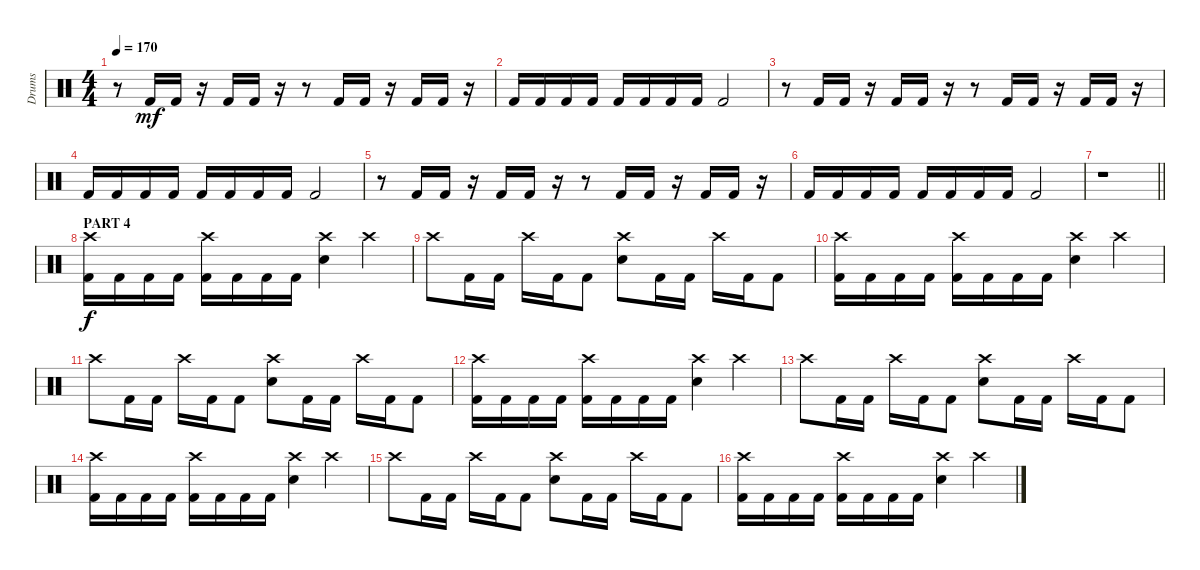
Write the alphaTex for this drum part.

\track ("Drums" "Drums") {instrument percussion}
\staff
\articulation defaults
\ts (4 4)
\tempo 170
\clef neutral
\ks c
r.8{dy mf} "Kick (hit) 2".16 "Kick (hit) 2".16 r.16 "Kick (hit) 2".16 "Kick (hit) 2".16 r.16 r.8 "Kick (hit) 2".16 "Kick (hit) 2".16 r.16 "Kick (hit) 2".16 "Kick (hit) 2".16 r.16 |
"Kick (hit) 2".16 "Kick (hit) 2".16 "Kick (hit) 2".16 "Kick (hit) 2".16 "Kick (hit) 2".16 "Kick (hit) 2".16 "Kick (hit) 2".16 "Kick (hit) 2".16 "Kick (hit) 2".2 |
r.8 "Kick (hit) 2".16 "Kick (hit) 2".16 r.16 "Kick (hit) 2".16 "Kick (hit) 2".16 r.16 r.8 "Kick (hit) 2".16 "Kick (hit) 2".16 r.16 "Kick (hit) 2".16 "Kick (hit) 2".16 r.16 |
"Kick (hit) 2".16 "Kick (hit) 2".16 "Kick (hit) 2".16 "Kick (hit) 2".16 "Kick (hit) 2".16 "Kick (hit) 2".16 "Kick (hit) 2".16 "Kick (hit) 2".16 "Kick (hit) 2".2 |
r.8 "Kick (hit) 2".16 "Kick (hit) 2".16 r.16 "Kick (hit) 2".16 "Kick (hit) 2".16 r.16 r.8 "Kick (hit) 2".16 "Kick (hit) 2".16 r.16 "Kick (hit) 2".16 "Kick (hit) 2".16 r.16 |
"Kick (hit) 2".16 "Kick (hit) 2".16 "Kick (hit) 2".16 "Kick (hit) 2".16 "Kick (hit) 2".16 "Kick (hit) 2".16 "Kick (hit) 2".16 "Kick (hit) 2".16 "Kick (hit) 2".2 |
\barLineRight lightlight
r.1 |
\section ("" "PART 4")
("Crash high (hit)" "Kick (hit) 2").16{dy f} "Kick (hit) 2".16 "Kick (hit) 2".16 "Kick (hit) 2".16 ("Crash high (hit)" "Kick (hit) 2").16 "Kick (hit) 2".16 "Kick (hit) 2".16 "Kick (hit) 2".16 ("Crash high (hit)" "Electric Snare (hit)").4 "Crash high (hit)".4 |
"Crash high (hit)".8 "Kick (hit) 2".16 "Kick (hit) 2".16 "Crash high (hit)".16 "Kick (hit) 2".16 "Kick (hit) 2".8 ("Crash high (hit)" "Electric Snare (hit)").8 "Kick (hit) 2".16 "Kick (hit) 2".16 "Crash high (hit)".16 "Kick (hit) 2".16 "Kick (hit) 2".8 |
("Crash high (hit)" "Kick (hit) 2").16 "Kick (hit) 2".16 "Kick (hit) 2".16 "Kick (hit) 2".16 ("Crash high (hit)" "Kick (hit) 2").16 "Kick (hit) 2".16 "Kick (hit) 2".16 "Kick (hit) 2".16 ("Crash high (hit)" "Electric Snare (hit)").4 "Crash high (hit)".4 |
"Crash high (hit)".8 "Kick (hit) 2".16 "Kick (hit) 2".16 "Crash high (hit)".16 "Kick (hit) 2".16 "Kick (hit) 2".8 ("Crash high (hit)" "Electric Snare (hit)").8 "Kick (hit) 2".16 "Kick (hit) 2".16 "Crash high (hit)".16 "Kick (hit) 2".16 "Kick (hit) 2".8 |
("Crash high (hit)" "Kick (hit) 2").16 "Kick (hit) 2".16 "Kick (hit) 2".16 "Kick (hit) 2".16 ("Crash high (hit)" "Kick (hit) 2").16 "Kick (hit) 2".16 "Kick (hit) 2".16 "Kick (hit) 2".16 ("Crash high (hit)" "Electric Snare (hit)").4 "Crash high (hit)".4 |
"Crash high (hit)".8 "Kick (hit) 2".16 "Kick (hit) 2".16 "Crash high (hit)".16 "Kick (hit) 2".16 "Kick (hit) 2".8 ("Crash high (hit)" "Electric Snare (hit)").8 "Kick (hit) 2".16 "Kick (hit) 2".16 "Crash high (hit)".16 "Kick (hit) 2".16 "Kick (hit) 2".8 |
("Crash high (hit)" "Kick (hit) 2").16 "Kick (hit) 2".16 "Kick (hit) 2".16 "Kick (hit) 2".16 ("Crash high (hit)" "Kick (hit) 2").16 "Kick (hit) 2".16 "Kick (hit) 2".16 "Kick (hit) 2".16 ("Crash high (hit)" "Electric Snare (hit)").4 "Crash high (hit)".4 |
"Crash high (hit)".8 "Kick (hit) 2".16 "Kick (hit) 2".16 "Crash high (hit)".16 "Kick (hit) 2".16 "Kick (hit) 2".8 ("Crash high (hit)" "Electric Snare (hit)").8 "Kick (hit) 2".16 "Kick (hit) 2".16 "Crash high (hit)".16 "Kick (hit) 2".16 "Kick (hit) 2".8 |
("Crash high (hit)" "Kick (hit) 2").16 "Kick (hit) 2".16 "Kick (hit) 2".16 "Kick (hit) 2".16 ("Crash high (hit)" "Kick (hit) 2").16 "Kick (hit) 2".16 "Kick (hit) 2".16 "Kick (hit) 2".16 ("Crash high (hit)" "Electric Snare (hit)").4 "Crash high (hit)".4
